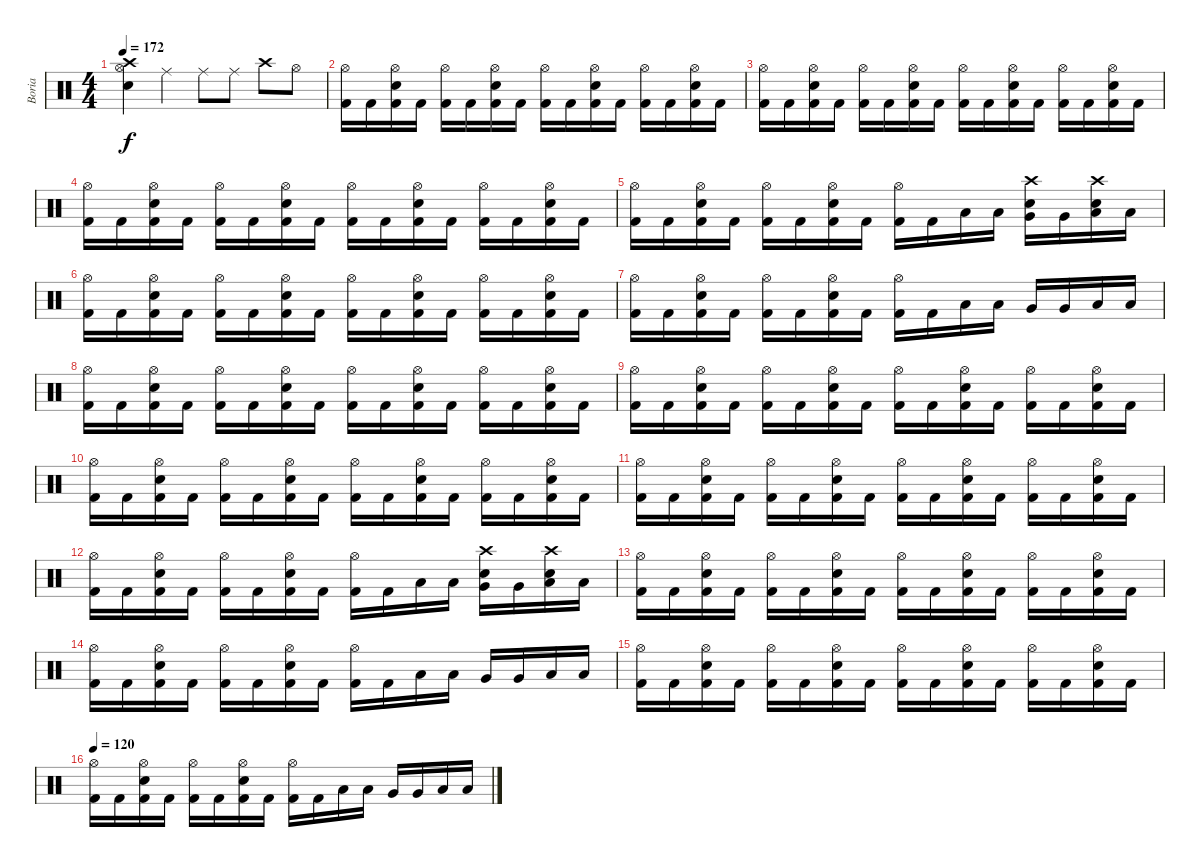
\track ("Boria" "Boria") {instrument percussion}
\staff {score}
\articulation defaults
\ts (4 4)
\tempo 172
\clef neutral
\ks c
("Crash high (hit)" "Hi-Hat (open)" "Snare (hit) 2").4{dy f} "Ride (middle)".4 "Ride (middle)".8 "Ride (middle)".8 "Crash high (hit)".8 "Hi-Hat (open)".8 |
("Hi-Hat (open)" "Kick (hit) 2").16 "Kick (hit) 2".16 ("Hi-Hat (open)" "Electric Snare (hit)" "Kick (hit) 2").16 "Kick (hit) 2".16 ("Hi-Hat (open)" "Kick (hit) 2").16 "Kick (hit) 2".16 ("Hi-Hat (open)" "Electric Snare (hit)" "Kick (hit) 2").16 "Kick (hit) 2".16 ("Hi-Hat (open)" "Kick (hit) 2").16 "Kick (hit) 2".16 ("Hi-Hat (open)" "Electric Snare (hit)" "Kick (hit) 2").16 "Kick (hit) 2".16 ("Hi-Hat (open)" "Kick (hit) 2").16 "Kick (hit) 2".16 ("Hi-Hat (open)" "Electric Snare (hit)" "Kick (hit) 2").16 "Kick (hit) 2".16 |
("Hi-Hat (open)" "Kick (hit) 2").16 "Kick (hit) 2".16 ("Hi-Hat (open)" "Electric Snare (hit)" "Kick (hit) 2").16 "Kick (hit) 2".16 ("Hi-Hat (open)" "Kick (hit) 2").16 "Kick (hit) 2".16 ("Hi-Hat (open)" "Electric Snare (hit)" "Kick (hit) 2").16 "Kick (hit) 2".16 ("Hi-Hat (open)" "Kick (hit) 2").16 "Kick (hit) 2".16 ("Hi-Hat (open)" "Electric Snare (hit)" "Kick (hit) 2").16 "Kick (hit) 2".16 ("Hi-Hat (open)" "Kick (hit) 2").16 "Kick (hit) 2".16 ("Hi-Hat (open)" "Electric Snare (hit)" "Kick (hit) 2").16 "Kick (hit) 2".16 |
("Hi-Hat (open)" "Kick (hit) 2").16 "Kick (hit) 2".16 ("Hi-Hat (open)" "Electric Snare (hit)" "Kick (hit) 2").16 "Kick (hit) 2".16 ("Hi-Hat (open)" "Kick (hit) 2").16 "Kick (hit) 2".16 ("Hi-Hat (open)" "Electric Snare (hit)" "Kick (hit) 2").16 "Kick (hit) 2".16 ("Hi-Hat (open)" "Kick (hit) 2").16 "Kick (hit) 2".16 ("Hi-Hat (open)" "Electric Snare (hit)" "Kick (hit) 2").16 "Kick (hit) 2".16 ("Hi-Hat (open)" "Kick (hit) 2").16 "Kick (hit) 2".16 ("Hi-Hat (open)" "Electric Snare (hit)" "Kick (hit) 2").16 "Kick (hit) 2".16 |
("Hi-Hat (open)" "Kick (hit) 2").16 "Kick (hit) 2".16 ("Hi-Hat (open)" "Electric Snare (hit)" "Kick (hit) 2").16 "Kick (hit) 2".16 ("Hi-Hat (open)" "Kick (hit) 2").16 "Kick (hit) 2".16 ("Hi-Hat (open)" "Electric Snare (hit)" "Kick (hit) 2").16 "Kick (hit) 2".16 ("Hi-Hat (open)" "Kick (hit) 2").16 "Kick (hit) 2".16 "Low Tom (hit)".16 "Low Tom (hit)".16 ("Crash high (hit)" "Snare (hit) 2" "Very Low Tom (hit)").16 "Very Low Tom (hit)".16 ("Crash high (hit)" "Snare (hit) 2" "Low Floor Tom (hit)").16 "Low Floor Tom (hit)".16 |
("Hi-Hat (open)" "Kick (hit) 2").16 "Kick (hit) 2".16 ("Hi-Hat (open)" "Electric Snare (hit)" "Kick (hit) 2").16 "Kick (hit) 2".16 ("Hi-Hat (open)" "Kick (hit) 2").16 "Kick (hit) 2".16 ("Hi-Hat (open)" "Electric Snare (hit)" "Kick (hit) 2").16 "Kick (hit) 2".16 ("Hi-Hat (open)" "Kick (hit) 2").16 "Kick (hit) 2".16 ("Hi-Hat (open)" "Electric Snare (hit)" "Kick (hit) 2").16 "Kick (hit) 2".16 ("Hi-Hat (open)" "Kick (hit) 2").16 "Kick (hit) 2".16 ("Hi-Hat (open)" "Electric Snare (hit)" "Kick (hit) 2").16 "Kick (hit) 2".16 |
("Hi-Hat (open)" "Kick (hit) 2").16 "Kick (hit) 2".16 ("Hi-Hat (open)" "Electric Snare (hit)" "Kick (hit) 2").16 "Kick (hit) 2".16 ("Hi-Hat (open)" "Kick (hit) 2").16 "Kick (hit) 2".16 ("Hi-Hat (open)" "Electric Snare (hit)" "Kick (hit) 2").16 "Kick (hit) 2".16 ("Hi-Hat (open)" "Kick (hit) 2").16 "Kick (hit) 2".16 "Low Tom (hit)".16 "Low Tom (hit)".16 "Very Low Tom (hit)".16 "Very Low Tom (hit)".16 "Low Floor Tom (hit)".16 "Low Floor Tom (hit)".16 |
("Hi-Hat (open)" "Kick (hit) 2").16 "Kick (hit) 2".16 ("Hi-Hat (open)" "Electric Snare (hit)" "Kick (hit) 2").16 "Kick (hit) 2".16 ("Hi-Hat (open)" "Kick (hit) 2").16 "Kick (hit) 2".16 ("Hi-Hat (open)" "Electric Snare (hit)" "Kick (hit) 2").16 "Kick (hit) 2".16 ("Hi-Hat (open)" "Kick (hit) 2").16 "Kick (hit) 2".16 ("Hi-Hat (open)" "Electric Snare (hit)" "Kick (hit) 2").16 "Kick (hit) 2".16 ("Hi-Hat (open)" "Kick (hit) 2").16 "Kick (hit) 2".16 ("Hi-Hat (open)" "Electric Snare (hit)" "Kick (hit) 2").16 "Kick (hit) 2".16 |
("Hi-Hat (open)" "Kick (hit) 2").16 "Kick (hit) 2".16 ("Hi-Hat (open)" "Electric Snare (hit)" "Kick (hit) 2").16 "Kick (hit) 2".16 ("Hi-Hat (open)" "Kick (hit) 2").16 "Kick (hit) 2".16 ("Hi-Hat (open)" "Electric Snare (hit)" "Kick (hit) 2").16 "Kick (hit) 2".16 ("Hi-Hat (open)" "Kick (hit) 2").16 "Kick (hit) 2".16 ("Hi-Hat (open)" "Electric Snare (hit)" "Kick (hit) 2").16 "Kick (hit) 2".16 ("Hi-Hat (open)" "Kick (hit) 2").16 "Kick (hit) 2".16 ("Hi-Hat (open)" "Electric Snare (hit)" "Kick (hit) 2").16 "Kick (hit) 2".16 |
("Hi-Hat (open)" "Kick (hit) 2").16 "Kick (hit) 2".16 ("Hi-Hat (open)" "Electric Snare (hit)" "Kick (hit) 2").16 "Kick (hit) 2".16 ("Hi-Hat (open)" "Kick (hit) 2").16 "Kick (hit) 2".16 ("Hi-Hat (open)" "Electric Snare (hit)" "Kick (hit) 2").16 "Kick (hit) 2".16 ("Hi-Hat (open)" "Kick (hit) 2").16 "Kick (hit) 2".16 ("Hi-Hat (open)" "Electric Snare (hit)" "Kick (hit) 2").16 "Kick (hit) 2".16 ("Hi-Hat (open)" "Kick (hit) 2").16 "Kick (hit) 2".16 ("Hi-Hat (open)" "Electric Snare (hit)" "Kick (hit) 2").16 "Kick (hit) 2".16 |
("Hi-Hat (open)" "Kick (hit) 2").16 "Kick (hit) 2".16 ("Hi-Hat (open)" "Electric Snare (hit)" "Kick (hit) 2").16 "Kick (hit) 2".16 ("Hi-Hat (open)" "Kick (hit) 2").16 "Kick (hit) 2".16 ("Hi-Hat (open)" "Electric Snare (hit)" "Kick (hit) 2").16 "Kick (hit) 2".16 ("Hi-Hat (open)" "Kick (hit) 2").16 "Kick (hit) 2".16 ("Hi-Hat (open)" "Electric Snare (hit)" "Kick (hit) 2").16 "Kick (hit) 2".16 ("Hi-Hat (open)" "Kick (hit) 2").16 "Kick (hit) 2".16 ("Hi-Hat (open)" "Electric Snare (hit)" "Kick (hit) 2").16 "Kick (hit) 2".16 |
("Hi-Hat (open)" "Kick (hit) 2").16 "Kick (hit) 2".16 ("Hi-Hat (open)" "Electric Snare (hit)" "Kick (hit) 2").16 "Kick (hit) 2".16 ("Hi-Hat (open)" "Kick (hit) 2").16 "Kick (hit) 2".16 ("Hi-Hat (open)" "Electric Snare (hit)" "Kick (hit) 2").16 "Kick (hit) 2".16 ("Hi-Hat (open)" "Kick (hit) 2").16 "Kick (hit) 2".16 "Low Tom (hit)".16 "Low Tom (hit)".16 ("Crash high (hit)" "Snare (hit) 2" "Very Low Tom (hit)").16 "Very Low Tom (hit)".16 ("Crash high (hit)" "Snare (hit) 2" "Low Floor Tom (hit)").16 "Low Floor Tom (hit)".16 |
("Hi-Hat (open)" "Kick (hit) 2").16 "Kick (hit) 2".16 ("Hi-Hat (open)" "Electric Snare (hit)" "Kick (hit) 2").16 "Kick (hit) 2".16 ("Hi-Hat (open)" "Kick (hit) 2").16 "Kick (hit) 2".16 ("Hi-Hat (open)" "Electric Snare (hit)" "Kick (hit) 2").16 "Kick (hit) 2".16 ("Hi-Hat (open)" "Kick (hit) 2").16 "Kick (hit) 2".16 ("Hi-Hat (open)" "Electric Snare (hit)" "Kick (hit) 2").16 "Kick (hit) 2".16 ("Hi-Hat (open)" "Kick (hit) 2").16 "Kick (hit) 2".16 ("Hi-Hat (open)" "Electric Snare (hit)" "Kick (hit) 2").16 "Kick (hit) 2".16 |
("Hi-Hat (open)" "Kick (hit) 2").16 "Kick (hit) 2".16 ("Hi-Hat (open)" "Electric Snare (hit)" "Kick (hit) 2").16 "Kick (hit) 2".16 ("Hi-Hat (open)" "Kick (hit) 2").16 "Kick (hit) 2".16 ("Hi-Hat (open)" "Electric Snare (hit)" "Kick (hit) 2").16 "Kick (hit) 2".16 ("Hi-Hat (open)" "Kick (hit) 2").16 "Kick (hit) 2".16 "Low Tom (hit)".16 "Low Tom (hit)".16 "Very Low Tom (hit)".16 "Very Low Tom (hit)".16 "Low Floor Tom (hit)".16 "Low Floor Tom (hit)".16 |
("Hi-Hat (open)" "Kick (hit) 2").16 "Kick (hit) 2".16 ("Hi-Hat (open)" "Electric Snare (hit)" "Kick (hit) 2").16 "Kick (hit) 2".16 ("Hi-Hat (open)" "Kick (hit) 2").16 "Kick (hit) 2".16 ("Hi-Hat (open)" "Electric Snare (hit)" "Kick (hit) 2").16 "Kick (hit) 2".16 ("Hi-Hat (open)" "Kick (hit) 2").16 "Kick (hit) 2".16 ("Hi-Hat (open)" "Electric Snare (hit)" "Kick (hit) 2").16 "Kick (hit) 2".16 ("Hi-Hat (open)" "Kick (hit) 2").16 "Kick (hit) 2".16 ("Hi-Hat (open)" "Electric Snare (hit)" "Kick (hit) 2").16 "Kick (hit) 2".16 |
\tempo 120
("Hi-Hat (open)" "Kick (hit) 2").16 "Kick (hit) 2".16 ("Hi-Hat (open)" "Electric Snare (hit)" "Kick (hit) 2").16 "Kick (hit) 2".16 ("Hi-Hat (open)" "Kick (hit) 2").16 "Kick (hit) 2".16 ("Hi-Hat (open)" "Electric Snare (hit)" "Kick (hit) 2").16 "Kick (hit) 2".16 ("Hi-Hat (open)" "Kick (hit) 2").16 "Kick (hit) 2".16 "Low Tom (hit)".16 "Low Tom (hit)".16 "Very Low Tom (hit)".16 "Very Low Tom (hit)".16 "Low Floor Tom (hit)".16 "Low Floor Tom (hit)".16
